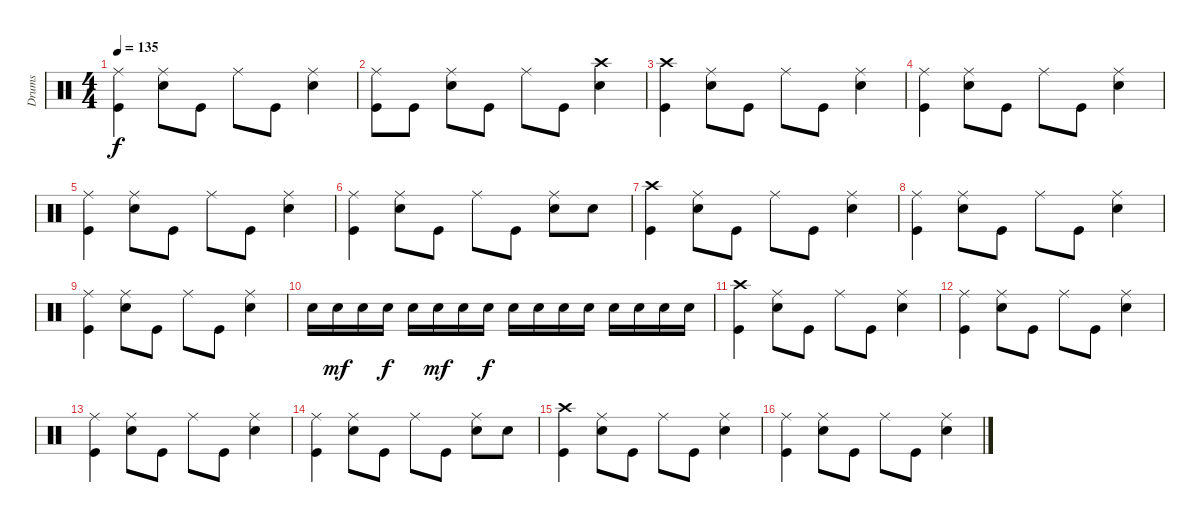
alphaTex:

\track ("Drums" "Drums") {instrument percussion}
\staff {score}
\articulation defaults
\ts (4 4)
\tempo 135
\clef neutral
\ks c
("Ride (middle)" "Kick (hit)").4{dy f} ("Ride (middle)" "Snare (hit) 2").8 "Kick (hit)".8 "Ride (middle)".8 "Kick (hit)".8 ("Ride (middle)" "Snare (hit) 2").4 |
("Ride (middle)" "Kick (hit)").8 "Kick (hit)".8 ("Ride (middle)" "Snare (hit) 2").8 "Kick (hit)".8 "Ride (middle)".8 "Kick (hit)".8 ("Crash high (hit)" "Snare (hit) 2").4 |
("Crash high (hit)" "Kick (hit)").4 ("Ride (middle)" "Snare (hit) 2").8 "Kick (hit)".8 "Ride (middle)".8 "Kick (hit)".8 ("Ride (middle)" "Snare (hit) 2").4 |
("Ride (middle)" "Kick (hit)").4 ("Ride (middle)" "Snare (hit) 2").8 "Kick (hit)".8 "Ride (middle)".8 "Kick (hit)".8 ("Ride (middle)" "Snare (hit) 2").4 |
("Ride (middle)" "Kick (hit)").4 ("Ride (middle)" "Snare (hit) 2").8 "Kick (hit)".8 "Ride (middle)".8 "Kick (hit)".8 ("Ride (middle)" "Snare (hit) 2").4 |
("Ride (middle)" "Kick (hit)").4 ("Ride (middle)" "Snare (hit) 2").8 "Kick (hit)".8 "Ride (middle)".8 "Kick (hit)".8 ("Ride (middle)" "Snare (hit) 2").8 "Snare (hit) 2".8 |
("Crash high (hit)" "Kick (hit)").4 ("Ride (middle)" "Snare (hit) 2").8 "Kick (hit)".8 "Ride (middle)".8 "Kick (hit)".8 ("Ride (middle)" "Snare (hit) 2").4 |
("Ride (middle)" "Kick (hit)").4 ("Ride (middle)" "Snare (hit) 2").8 "Kick (hit)".8 "Ride (middle)".8 "Kick (hit)".8 ("Ride (middle)" "Snare (hit) 2").4 |
("Ride (middle)" "Kick (hit)").4 ("Ride (middle)" "Snare (hit) 2").8 "Kick (hit)".8 "Ride (middle)".8 "Kick (hit)".8 ("Ride (middle)" "Snare (hit) 2").4 |
"Snare (hit) 2".16 "Snare (hit) 2".16{dy mf} "Snare (hit) 2".16 "Snare (hit) 2".16{dy f} "Snare (hit) 2".16 "Snare (hit) 2".16{dy mf} "Snare (hit) 2".16 "Snare (hit) 2".16{dy f} "Snare (hit) 2".16 "Snare (hit) 2".16 "Snare (hit) 2".16 "Snare (hit) 2".16 "Snare (hit) 2".16 "Snare (hit) 2".16 "Snare (hit) 2".16 "Snare (hit) 2".16 |
("Crash high (hit)" "Kick (hit)").4 ("Ride (middle)" "Snare (hit) 2").8 "Kick (hit)".8 "Ride (middle)".8 "Kick (hit)".8 ("Ride (middle)" "Snare (hit) 2").4 |
("Ride (middle)" "Kick (hit)").4 ("Ride (middle)" "Snare (hit) 2").8 "Kick (hit)".8 "Ride (middle)".8 "Kick (hit)".8 ("Ride (middle)" "Snare (hit) 2").4 |
("Ride (middle)" "Kick (hit)").4 ("Ride (middle)" "Snare (hit) 2").8 "Kick (hit)".8 "Ride (middle)".8 "Kick (hit)".8 ("Ride (middle)" "Snare (hit) 2").4 |
("Ride (middle)" "Kick (hit)").4 ("Ride (middle)" "Snare (hit) 2").8 "Kick (hit)".8 "Ride (middle)".8 "Kick (hit)".8 ("Ride (middle)" "Snare (hit) 2").8 "Snare (hit) 2".8 |
("Crash high (hit)" "Kick (hit)").4 ("Ride (middle)" "Snare (hit) 2").8 "Kick (hit)".8 "Ride (middle)".8 "Kick (hit)".8 ("Ride (middle)" "Snare (hit) 2").4 |
("Ride (middle)" "Kick (hit)").4 ("Ride (middle)" "Snare (hit) 2").8 "Kick (hit)".8 "Ride (middle)".8 "Kick (hit)".8 ("Ride (middle)" "Snare (hit) 2").4
